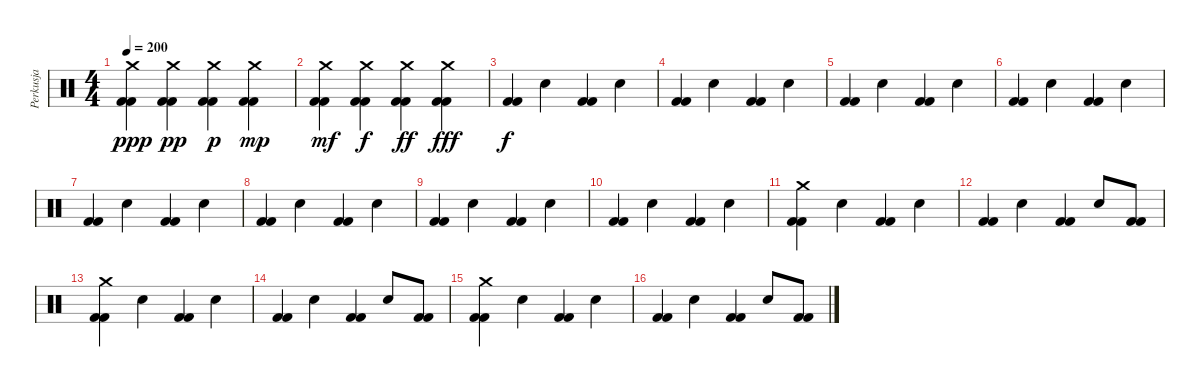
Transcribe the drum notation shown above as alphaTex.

\track ("Perkusja" "Perkusja") {instrument percussion}
\staff {score}
\articulation defaults
\ts (4 4)
\tempo 200
\clef neutral
\ks c
("Crash medium (hit)" "Kick (hit) 2" "Kick (hit) 2").4{dy ppp} ("Crash medium (hit)" "Kick (hit) 2" "Kick (hit) 2").4{dy pp} ("Crash medium (hit)" "Kick (hit) 2" "Kick (hit) 2").4{dy p} ("Crash medium (hit)" "Kick (hit) 2" "Kick (hit) 2").4{dy mp} |
("Crash medium (hit)" "Kick (hit) 2" "Kick (hit) 2").4{dy mf} ("Crash medium (hit)" "Kick (hit) 2" "Kick (hit) 2").4{dy f} ("Crash medium (hit)" "Kick (hit) 2" "Kick (hit) 2").4{dy ff} ("Crash medium (hit)" "Kick (hit) 2" "Kick (hit) 2").4{dy fff} |
("Kick (hit) 2" "Kick (hit) 2").4{dy f} "Snare (hit) 2".4 ("Kick (hit) 2" "Kick (hit) 2").4 "Snare (hit) 2".4 |
("Kick (hit) 2" "Kick (hit) 2").4 "Snare (hit) 2".4 ("Kick (hit) 2" "Kick (hit) 2").4 "Snare (hit) 2".4 |
("Kick (hit) 2" "Kick (hit) 2").4 "Snare (hit) 2".4 ("Kick (hit) 2" "Kick (hit) 2").4 "Snare (hit) 2".4 |
("Kick (hit) 2" "Kick (hit) 2").4 "Snare (hit) 2".4 ("Kick (hit) 2" "Kick (hit) 2").4 "Snare (hit) 2".4 |
("Kick (hit) 2" "Kick (hit) 2").4 "Snare (hit) 2".4 ("Kick (hit) 2" "Kick (hit) 2").4 "Snare (hit) 2".4 |
("Kick (hit) 2" "Kick (hit) 2").4 "Snare (hit) 2".4 ("Kick (hit) 2" "Kick (hit) 2").4 "Snare (hit) 2".4 |
("Kick (hit) 2" "Kick (hit) 2").4 "Snare (hit) 2".4 ("Kick (hit) 2" "Kick (hit) 2").4 "Snare (hit) 2".4 |
("Kick (hit) 2" "Kick (hit) 2").4 "Snare (hit) 2".4 ("Kick (hit) 2" "Kick (hit) 2").4 "Snare (hit) 2".4 |
("Crash medium (hit)" "Kick (hit) 2" "Kick (hit) 2").4 "Snare (hit) 2".4 ("Kick (hit) 2" "Kick (hit) 2").4 "Snare (hit) 2".4 |
("Kick (hit) 2" "Kick (hit) 2").4 "Snare (hit) 2".4 ("Kick (hit) 2" "Kick (hit) 2").4 "Snare (hit) 2".8 ("Kick (hit) 2" "Kick (hit) 2").8 |
("Crash medium (hit)" "Kick (hit) 2" "Kick (hit) 2").4 "Snare (hit) 2".4 ("Kick (hit) 2" "Kick (hit) 2").4 "Snare (hit) 2".4 |
("Kick (hit) 2" "Kick (hit) 2").4 "Snare (hit) 2".4 ("Kick (hit) 2" "Kick (hit) 2").4 "Snare (hit) 2".8 ("Kick (hit) 2" "Kick (hit) 2").8 |
("Crash medium (hit)" "Kick (hit) 2" "Kick (hit) 2").4 "Snare (hit) 2".4 ("Kick (hit) 2" "Kick (hit) 2").4 "Snare (hit) 2".4 |
("Kick (hit) 2" "Kick (hit) 2").4 "Snare (hit) 2".4 ("Kick (hit) 2" "Kick (hit) 2").4 "Snare (hit) 2".8 ("Kick (hit) 2" "Kick (hit) 2").8
